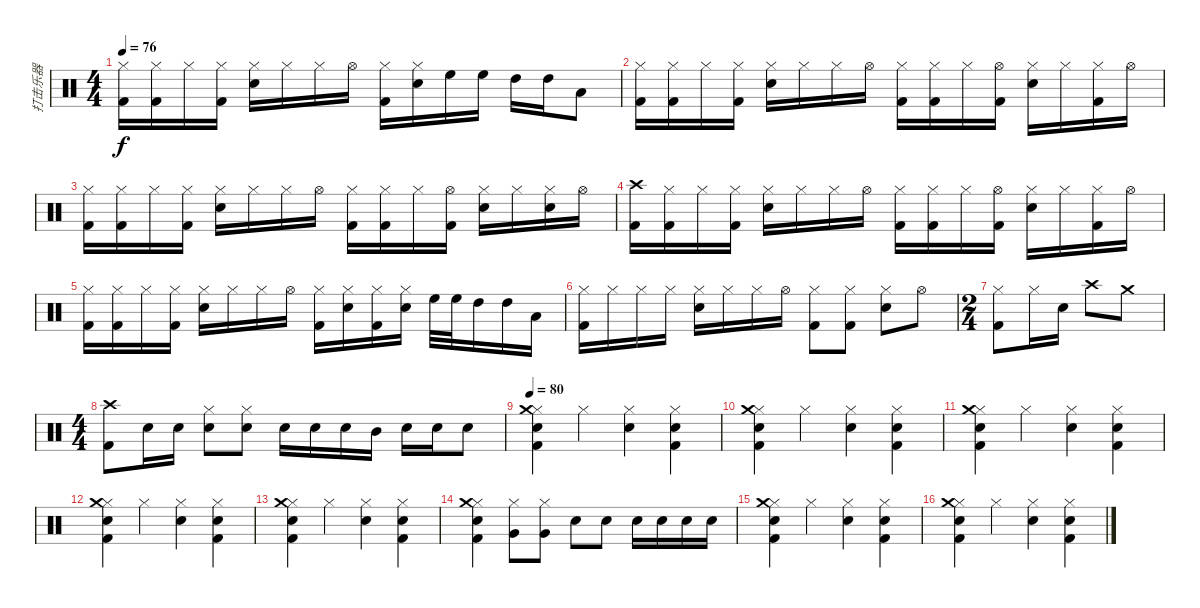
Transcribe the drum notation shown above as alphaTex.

\track ("打击乐器" "打击乐器") {instrument percussion}
\staff {score}
\articulation defaults
\ts (4 4)
\tempo 76
\clef neutral
\ks c
("Hi-Hat (closed)" "Kick (hit) 2").16{dy f} ("Hi-Hat (closed)" "Kick (hit) 2").16 "Hi-Hat (closed)".16 ("Hi-Hat (closed)" "Kick (hit) 2").16 ("Hi-Hat (closed)" "Snare (hit) 2").16 "Hi-Hat (closed)".16 "Hi-Hat (closed)".16 "Hi-Hat (open)".16 ("Hi-Hat (closed)" "Kick (hit) 2").16 ("Hi-Hat (closed)" "Snare (hit) 2").16 "High Floor Tom (hit)".16 "High Floor Tom (hit)".16 "High Tom (hit)".16 "High Tom (hit)".16 "Low Tom (hit)".8 |
("Hi-Hat (closed)" "Kick (hit) 2").16 ("Hi-Hat (closed)" "Kick (hit) 2").16 "Hi-Hat (closed)".16 ("Hi-Hat (closed)" "Kick (hit) 2").16 ("Hi-Hat (closed)" "Snare (hit) 2").16 "Hi-Hat (closed)".16 "Hi-Hat (closed)".16 "Hi-Hat (open)".16 ("Hi-Hat (closed)" "Kick (hit) 2").16 ("Hi-Hat (closed)" "Kick (hit) 2").16 "Hi-Hat (closed)".16 ("Hi-Hat (open)" "Kick (hit) 2").16 ("Hi-Hat (closed)" "Snare (hit) 2").16 "Hi-Hat (closed)".16 ("Hi-Hat (closed)" "Kick (hit) 2").16 "Hi-Hat (open)".16 |
("Hi-Hat (closed)" "Kick (hit) 2").16 ("Hi-Hat (closed)" "Kick (hit) 2").16 "Hi-Hat (closed)".16 ("Hi-Hat (closed)" "Kick (hit) 2").16 ("Hi-Hat (closed)" "Snare (hit) 2").16 "Hi-Hat (closed)".16 "Hi-Hat (closed)".16 "Hi-Hat (open)".16 ("Hi-Hat (closed)" "Kick (hit) 2").16 ("Hi-Hat (closed)" "Kick (hit) 2").16 "Hi-Hat (closed)".16 ("Hi-Hat (open)" "Kick (hit) 2").16 ("Hi-Hat (closed)" "Snare (hit) 2").16 "Hi-Hat (closed)".16 ("Hi-Hat (closed)" "Snare (hit) 2").16 "Hi-Hat (open)".16 |
("Crash high (hit)" "Kick (hit) 2").16 ("Hi-Hat (closed)" "Kick (hit) 2").16 "Hi-Hat (closed)".16 ("Hi-Hat (closed)" "Kick (hit) 2").16 ("Hi-Hat (closed)" "Snare (hit) 2").16 "Hi-Hat (closed)".16 "Hi-Hat (closed)".16 "Hi-Hat (open)".16 ("Hi-Hat (closed)" "Kick (hit) 2").16 ("Hi-Hat (closed)" "Kick (hit) 2").16 "Hi-Hat (closed)".16 ("Hi-Hat (open)" "Kick (hit) 2").16 ("Hi-Hat (closed)" "Snare (hit) 2").16 "Hi-Hat (closed)".16 ("Hi-Hat (closed)" "Kick (hit) 2").16 "Hi-Hat (open)".16 |
("Hi-Hat (closed)" "Kick (hit) 2").16 ("Hi-Hat (closed)" "Kick (hit) 2").16 "Hi-Hat (closed)".16 ("Hi-Hat (closed)" "Kick (hit) 2").16 ("Hi-Hat (closed)" "Snare (hit) 2").16 "Hi-Hat (closed)".16 "Hi-Hat (closed)".16 "Hi-Hat (open)".16 ("Hi-Hat (closed)" "Kick (hit) 2").16 ("Hi-Hat (closed)" "Snare (hit) 2").16 ("Hi-Hat (closed)" "Kick (hit) 2").16 ("Hi-Hat (closed)" "Snare (hit) 2").16 "High Floor Tom (hit)".32 "High Floor Tom (hit)".32 "High Tom (hit)".16 "High Tom (hit)".16 "Low Tom (hit)".16 |
("Hi-Hat (closed)" "Kick (hit) 2").16 "Hi-Hat (closed)".16 "Hi-Hat (closed)".16 "Hi-Hat (closed)".16 ("Hi-Hat (closed)" "Snare (hit) 2").16 "Hi-Hat (closed)".16 "Hi-Hat (closed)".16 "Hi-Hat (open)".16 ("Hi-Hat (closed)" "Kick (hit) 2").8 ("Hi-Hat (closed)" "Kick (hit) 2").8 ("Hi-Hat (closed)" "Snare (hit) 2").8 "Hi-Hat (open)".8 |
\ts (2 4)
("Hi-Hat (closed)" "Kick (hit) 2").8 "Hi-Hat (closed)".16 "Snare (hit) 2".16 "Crash high (hit)".8 "Crash medium (hit)".8 |
\ts (4 4)
("Crash high (hit)" "Kick (hit) 2").8 "Snare (hit) 2".16 "Snare (hit) 2".16 ("Hi-Hat (closed)" "Snare (hit) 2").8 ("Hi-Hat (closed)" "Snare (hit) 2").8 "Snare (hit) 2".16 "Snare (hit) 2".16 "Snare (hit) 2".16 "Mid Tom (hit)".16 "Snare (hit) 2".16 "Snare (hit) 2".16 "Snare (hit) 2".8 |
\tempo 80
("Hi-Hat (closed)" "Snare (hit) 2" "Kick (hit) 2" "Crash medium (hit)").4 "Hi-Hat (closed)".4 ("Hi-Hat (closed)" "Hand Clap (hit)").4 ("Hi-Hat (closed)" "Snare (hit) 2" "Kick (hit) 2").4 |
("Hi-Hat (closed)" "Snare (hit) 2" "Kick (hit) 2" "Crash medium (hit)").4 "Hi-Hat (closed)".4 ("Hi-Hat (closed)" "Hand Clap (hit)").4 ("Hi-Hat (closed)" "Snare (hit) 2" "Kick (hit) 2").4 |
("Hi-Hat (closed)" "Snare (hit) 2" "Kick (hit) 2" "Crash medium (hit)").4 "Hi-Hat (closed)".4 ("Hi-Hat (closed)" "Hand Clap (hit)").4 ("Hi-Hat (closed)" "Snare (hit) 2" "Kick (hit) 2").4 |
("Hi-Hat (closed)" "Snare (hit) 2" "Kick (hit) 2" "Crash medium (hit)").4 "Hi-Hat (closed)".4 ("Hi-Hat (closed)" "Hand Clap (hit)").4 ("Hi-Hat (closed)" "Snare (hit) 2" "Kick (hit) 2").4 |
("Hi-Hat (closed)" "Snare (hit) 2" "Kick (hit) 2" "Crash medium (hit)").4 "Hi-Hat (closed)".4 ("Hi-Hat (closed)" "Hand Clap (hit)").4 ("Hi-Hat (closed)" "Snare (hit) 2" "Kick (hit) 2").4 |
("Hi-Hat (closed)" "Snare (hit) 2" "Kick (hit) 2" "Crash medium (hit)").4 ("Hi-Hat (closed)" "Very Low Tom (hit)").8 ("Hi-Hat (closed)" "Very Low Tom (hit)").8 "Snare (hit) 2".8 "Snare (hit) 2".8 "Electric Snare (hit)".16 "Electric Snare (hit)".16 "Electric Snare (hit)".16 "Electric Snare (hit)".16 |
("Hi-Hat (closed)" "Snare (hit) 2" "Kick (hit) 2" "Crash medium (hit)").4 "Hi-Hat (closed)".4 ("Hi-Hat (closed)" "Hand Clap (hit)").4 ("Hi-Hat (closed)" "Snare (hit) 2" "Kick (hit) 2").4 |
("Hi-Hat (closed)" "Snare (hit) 2" "Kick (hit) 2" "Crash medium (hit)").4 "Hi-Hat (closed)".4 ("Hi-Hat (closed)" "Hand Clap (hit)").4 ("Hi-Hat (closed)" "Snare (hit) 2" "Kick (hit) 2").4
